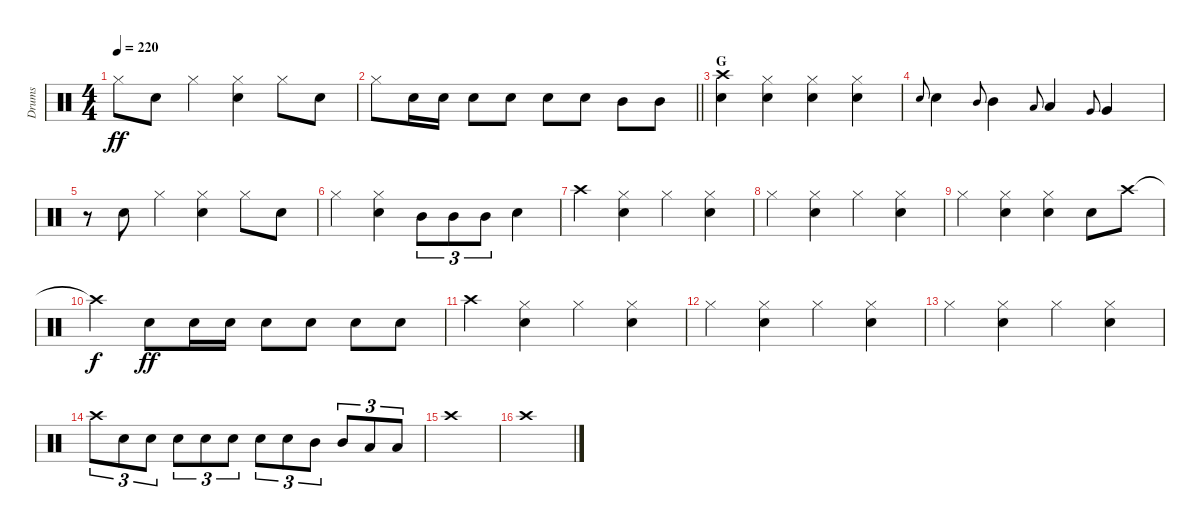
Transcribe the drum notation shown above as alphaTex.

\track ("Drums" "Drums") {instrument percussion}
\staff {score}
\articulation defaults
\ts (4 4)
\tempo 220
\clef neutral
\ks c "Hi-Hat (closed)".8{dy ff} "Snare (hit) 2".8 "Hi-Hat (closed)".4
("Hi-Hat (closed)" "Snare (hit) 2").4 "Hi-Hat (closed)".8 "Snare (hit) 2".8 |
\barLineRight lightlight "Hi-Hat (closed)".8 "Snare (hit) 2".16 "Snare (hit) 2".16 "Snare (hit) 2".8 "Snare (hit) 2".8 "Snare (hit) 2".8 "Snare (hit) 2".8 "Mid Tom (hit)".8 "Mid Tom (hit)".8
|
\section ("" "G")
("Crash high (hit)" "Snare (hit) 2").4 ("Hi-Hat (closed)" "Snare (hit) 2").4 ("Hi-Hat (closed)" "Snare (hit) 2").4 ("Hi-Hat (closed)" "Snare (hit) 2").4 |
"Snare (hit) 2".8{gr onbeat} "Snare (hit) 2".4 "Mid Tom (hit)".8{gr onbeat} "Mid Tom (hit)".4 "Low Tom (hit)".8{gr onbeat} "Low Tom (hit)".4 "Very Low Tom (hit)".8{gr onbeat} "Very Low Tom (hit)".4 |
r.8 "Snare (hit) 2".8 "Hi-Hat (closed)".4 ("Hi-Hat (closed)" "Snare (hit) 2").4 "Hi-Hat (closed)".8 "Snare (hit) 2".8 |
"Hi-Hat (closed)".4 ("Hi-Hat (closed)" "Snare (hit) 2").4 "Mid Tom (hit)".8{tu (3 2)} "Mid Tom (hit)".8{tu (3 2)} "Mid Tom (hit)".8{tu (3 2)} "Snare (hit) 2".4 |
"Crash high (hit)".4 ("Hi-Hat (closed)" "Snare (hit) 2").4 "Hi-Hat (closed)".4 ("Hi-Hat (closed)" "Snare (hit) 2").4 |
"Hi-Hat (closed)".4 ("Hi-Hat (closed)" "Snare (hit) 2").4 "Hi-Hat (closed)".4 ("Hi-Hat (closed)" "Snare (hit) 2").4 |
"Hi-Hat (closed)".4 ("Hi-Hat (closed)" "Snare (hit) 2").4 ("Hi-Hat (closed)" "Snare (hit) 2").4 "Snare (hit) 2".8 "Crash high (hit)".8 |
"Crash high (hit)"{t}.4{dy f} "Snare (hit) 2".8{dy ff} "Snare (hit) 2".16 "Snare (hit) 2".16 "Snare (hit) 2".8 "Snare (hit) 2".8 "Snare (hit) 2".8 "Snare (hit) 2".8 |
"Crash high (hit)".4 ("Hi-Hat (closed)" "Snare (hit) 2").4 "Hi-Hat (closed)".4 ("Hi-Hat (closed)" "Snare (hit) 2").4 |
"Hi-Hat (closed)".4 ("Hi-Hat (closed)" "Snare (hit) 2").4 "Hi-Hat (closed)".4 ("Hi-Hat (closed)" "Snare (hit) 2").4 |
"Hi-Hat (closed)".4 ("Hi-Hat (closed)" "Snare (hit) 2").4 "Hi-Hat (closed)".4 ("Hi-Hat (closed)" "Snare (hit) 2").4 |
"Crash high (hit)".8{tu (3 2)} "Snare (hit) 2".8{tu (3 2)} "Snare (hit) 2".8{tu (3 2)} "Snare (hit) 2".8{tu (3 2)} "Snare (hit) 2".8{tu (3 2)} "Snare (hit) 2".8{tu (3 2)} "Snare (hit) 2".8{tu (3 2)} "Snare (hit) 2".8{tu (3 2)} "Mid Tom (hit)".8{tu (3 2)} "Mid Tom (hit)".8{tu (3 2)} "Low Tom (hit)".8{tu (3 2)} "Low Tom (hit)".8{tu (3 2)} |
"Crash high (hit)".1 |
"Crash high (hit)".1
